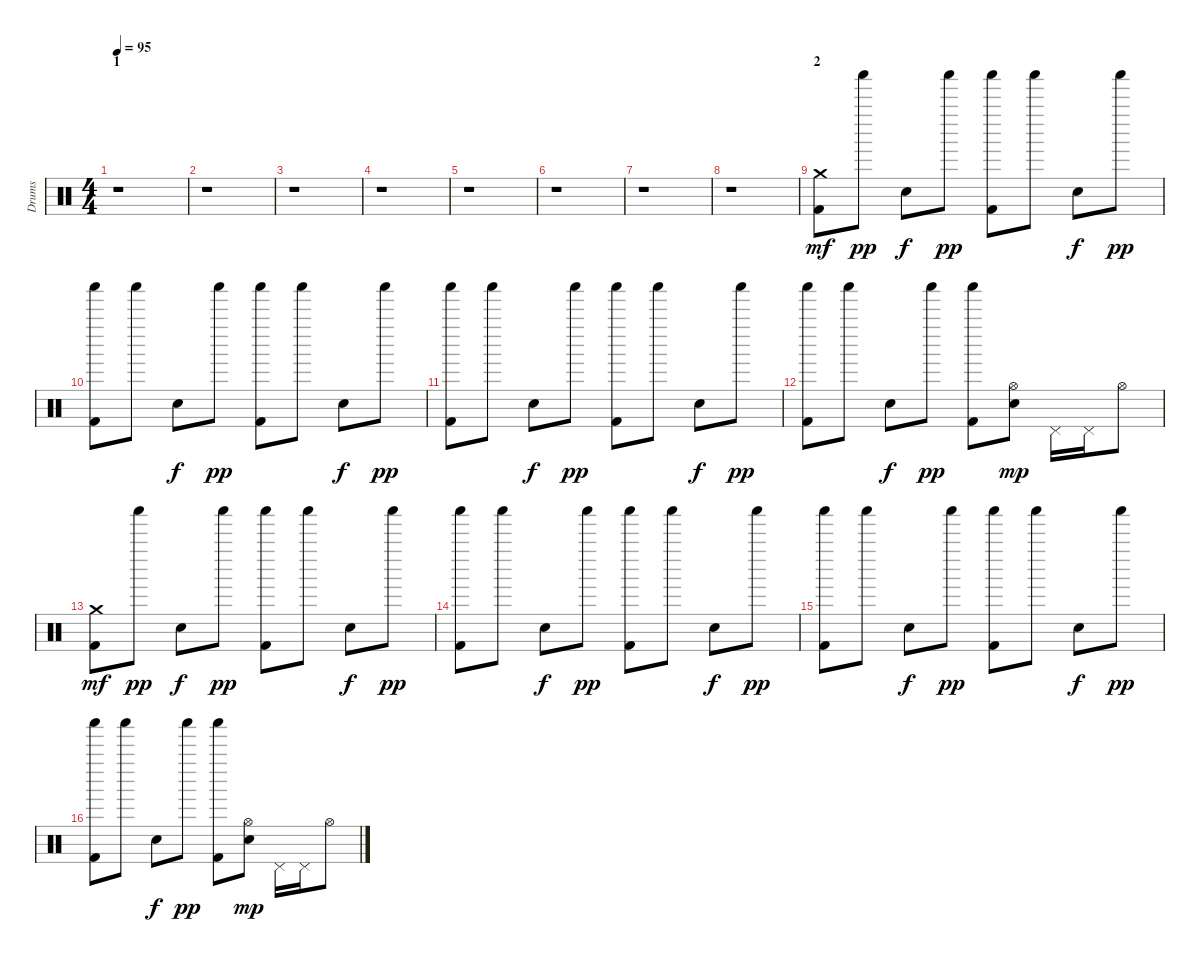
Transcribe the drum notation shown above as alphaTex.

\track ("Drums" "Drums") {instrument percussion}
\staff {score}
\articulation defaults
\ts (4 4)
\section ("" "1")
\tempo 95
\clef neutral
\ks c
r.1{dy mf} |
r.1 |
r.1 |
r.1 |
r.1 |
r.1 |
r.1 |
r.1 |
\section ("" "2")
("Kick (hit) 2" "Crash medium (hit)").8 "Shaker (hit)".8{dy pp} "Electric Snare (hit)".8{dy f} "Shaker (hit)".8{dy pp} ("Kick (hit) 2" "Shaker (hit)").8 "Shaker (hit)".8 "Electric Snare (hit)".8{dy f} "Shaker (hit)".8{dy pp} |
("Kick (hit) 2" "Shaker (hit)").8 "Shaker (hit)".8 "Electric Snare (hit)".8{dy f} "Shaker (hit)".8{dy pp} ("Kick (hit) 2" "Shaker (hit)").8 "Shaker (hit)".8 "Electric Snare (hit)".8{dy f} "Shaker (hit)".8{dy pp} |
("Kick (hit) 2" "Shaker (hit)").8 "Shaker (hit)".8 "Electric Snare (hit)".8{dy f} "Shaker (hit)".8{dy pp} ("Kick (hit) 2" "Shaker (hit)").8 "Shaker (hit)".8 "Electric Snare (hit)".8{dy f} "Shaker (hit)".8{dy pp} |
("Kick (hit) 2" "Shaker (hit)").8 "Shaker (hit)".8 "Electric Snare (hit)".8{dy f} "Shaker (hit)".8{dy pp} ("Kick (hit) 2" "Shaker (hit)").8 ("Electric Snare (hit)" "Hi-Hat (open)").8{dy mp} "Pedal Hi-Hat (hit)".16 "Pedal Hi-Hat (hit)".16 "Hi-Hat (open)".8 |
("Kick (hit) 2" "Crash medium (hit)").8{dy mf} "Shaker (hit)".8{dy pp} "Electric Snare (hit)".8{dy f} "Shaker (hit)".8{dy pp} ("Kick (hit) 2" "Shaker (hit)").8 "Shaker (hit)".8 "Electric Snare (hit)".8{dy f} "Shaker (hit)".8{dy pp} |
("Kick (hit) 2" "Shaker (hit)").8 "Shaker (hit)".8 "Electric Snare (hit)".8{dy f} "Shaker (hit)".8{dy pp} ("Kick (hit) 2" "Shaker (hit)").8 "Shaker (hit)".8 "Electric Snare (hit)".8{dy f} "Shaker (hit)".8{dy pp} |
("Kick (hit) 2" "Shaker (hit)").8 "Shaker (hit)".8 "Electric Snare (hit)".8{dy f} "Shaker (hit)".8{dy pp} ("Kick (hit) 2" "Shaker (hit)").8 "Shaker (hit)".8 "Electric Snare (hit)".8{dy f} "Shaker (hit)".8{dy pp} |
("Kick (hit) 2" "Shaker (hit)").8 "Shaker (hit)".8 "Electric Snare (hit)".8{dy f} "Shaker (hit)".8{dy pp} ("Kick (hit) 2" "Shaker (hit)").8 ("Electric Snare (hit)" "Hi-Hat (open)").8{dy mp} "Pedal Hi-Hat (hit)".16 "Pedal Hi-Hat (hit)".16 "Hi-Hat (open)".8
